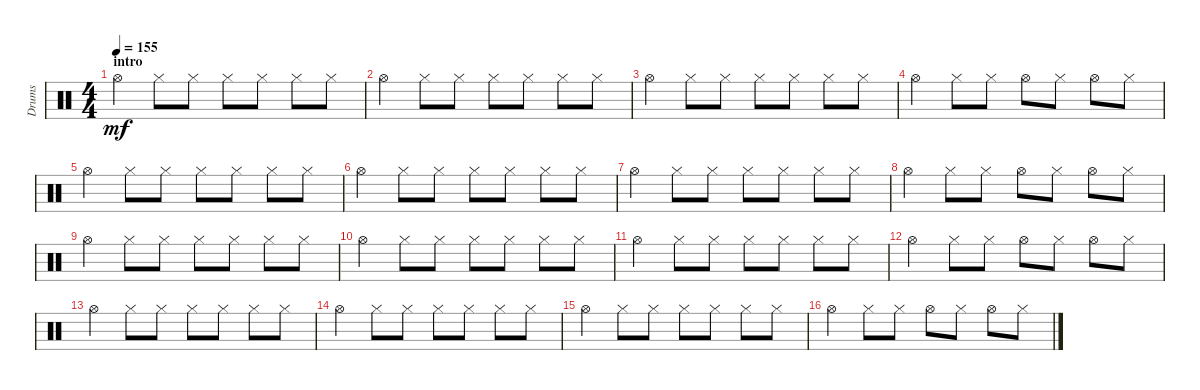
\track ("Drums" "Drums") {instrument percussion}
\staff {score}
\articulation defaults
\ts (4 4)
\section ("" "intro")
\tempo 155
\clef neutral
\ks c "Hi-Hat (open)".4{dy mf} "Hi-Hat (closed)".8 "Hi-Hat (closed)".8 "Hi-Hat (closed)".8 "Hi-Hat (closed)".8 "Hi-Hat (closed)".8 "Hi-Hat (closed)".8
|
"Hi-Hat (open)".4 "Hi-Hat (closed)".8 "Hi-Hat (closed)".8 "Hi-Hat (closed)".8 "Hi-Hat (closed)".8 "Hi-Hat (closed)".8 "Hi-Hat (closed)".8 |
"Hi-Hat (open)".4 "Hi-Hat (closed)".8 "Hi-Hat (closed)".8 "Hi-Hat (closed)".8 "Hi-Hat (closed)".8 "Hi-Hat (closed)".8 "Hi-Hat (closed)".8 |
"Hi-Hat (open)".4 "Hi-Hat (closed)".8 "Hi-Hat (closed)".8 "Hi-Hat (open)".8 "Hi-Hat (closed)".8 "Hi-Hat (open)".8 "Hi-Hat (closed)".8 |
"Hi-Hat (open)".4 "Hi-Hat (closed)".8 "Hi-Hat (closed)".8 "Hi-Hat (closed)".8 "Hi-Hat (closed)".8 "Hi-Hat (closed)".8 "Hi-Hat (closed)".8 |
"Hi-Hat (open)".4 "Hi-Hat (closed)".8 "Hi-Hat (closed)".8 "Hi-Hat (closed)".8 "Hi-Hat (closed)".8 "Hi-Hat (closed)".8 "Hi-Hat (closed)".8 |
"Hi-Hat (open)".4 "Hi-Hat (closed)".8 "Hi-Hat (closed)".8 "Hi-Hat (closed)".8 "Hi-Hat (closed)".8 "Hi-Hat (closed)".8 "Hi-Hat (closed)".8 |
"Hi-Hat (open)".4 "Hi-Hat (closed)".8 "Hi-Hat (closed)".8 "Hi-Hat (open)".8 "Hi-Hat (closed)".8 "Hi-Hat (open)".8 "Hi-Hat (closed)".8 |
"Hi-Hat (open)".4 "Hi-Hat (closed)".8 "Hi-Hat (closed)".8 "Hi-Hat (closed)".8 "Hi-Hat (closed)".8 "Hi-Hat (closed)".8 "Hi-Hat (closed)".8 |
"Hi-Hat (open)".4 "Hi-Hat (closed)".8 "Hi-Hat (closed)".8 "Hi-Hat (closed)".8 "Hi-Hat (closed)".8 "Hi-Hat (closed)".8 "Hi-Hat (closed)".8 |
"Hi-Hat (open)".4 "Hi-Hat (closed)".8 "Hi-Hat (closed)".8 "Hi-Hat (closed)".8 "Hi-Hat (closed)".8 "Hi-Hat (closed)".8 "Hi-Hat (closed)".8 |
"Hi-Hat (open)".4 "Hi-Hat (closed)".8 "Hi-Hat (closed)".8 "Hi-Hat (open)".8 "Hi-Hat (closed)".8 "Hi-Hat (open)".8 "Hi-Hat (closed)".8 |
"Hi-Hat (open)".4 "Hi-Hat (closed)".8 "Hi-Hat (closed)".8 "Hi-Hat (closed)".8 "Hi-Hat (closed)".8 "Hi-Hat (closed)".8 "Hi-Hat (closed)".8 |
"Hi-Hat (open)".4 "Hi-Hat (closed)".8 "Hi-Hat (closed)".8 "Hi-Hat (closed)".8 "Hi-Hat (closed)".8 "Hi-Hat (closed)".8 "Hi-Hat (closed)".8 |
"Hi-Hat (open)".4 "Hi-Hat (closed)".8 "Hi-Hat (closed)".8 "Hi-Hat (closed)".8 "Hi-Hat (closed)".8 "Hi-Hat (closed)".8 "Hi-Hat (closed)".8 |
"Hi-Hat (open)".4 "Hi-Hat (closed)".8 "Hi-Hat (closed)".8 "Hi-Hat (open)".8 "Hi-Hat (closed)".8 "Hi-Hat (open)".8 "Hi-Hat (closed)".8
